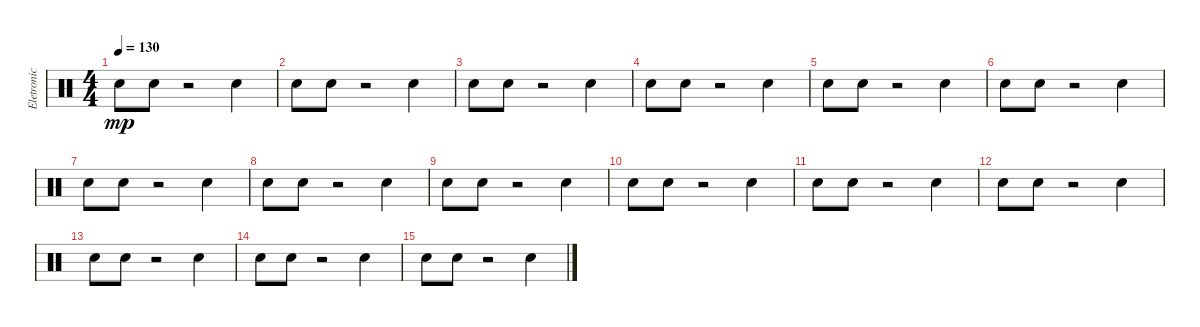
\track ("Eletronic drum" "Eletronic ") {instrument percussion}
\staff {score}
\articulation defaults
\ts (4 4)
\tempo 130
\clef neutral
\ks c "Snare (hit) 2".8{dy mp} "Hand Clap (hit)".8
r.2 "Hand Clap (hit)".4 |
"Snare (hit) 2".8 "Hand Clap (hit)".8 r.2 "Hand Clap (hit)".4 |
"Snare (hit) 2".8 "Hand Clap (hit)".8 r.2 "Hand Clap (hit)".4 |
"Snare (hit) 2".8 "Hand Clap (hit)".8 r.2 "Hand Clap (hit)".4 |
"Snare (hit) 2".8 "Hand Clap (hit)".8 r.2 "Hand Clap (hit)".4 |
"Snare (hit) 2".8 "Hand Clap (hit)".8 r.2 "Hand Clap (hit)".4 |
"Snare (hit) 2".8 "Hand Clap (hit)".8 r.2 "Hand Clap (hit)".4 |
"Snare (hit) 2".8 "Hand Clap (hit)".8 r.2 "Hand Clap (hit)".4 |
"Snare (hit) 2".8 "Hand Clap (hit)".8 r.2 "Hand Clap (hit)".4 |
"Snare (hit) 2".8 "Hand Clap (hit)".8 r.2 "Hand Clap (hit)".4 |
"Snare (hit) 2".8 "Hand Clap (hit)".8 r.2 "Hand Clap (hit)".4 |
"Snare (hit) 2".8 "Hand Clap (hit)".8 r.2 "Hand Clap (hit)".4 |
"Snare (hit) 2".8 "Hand Clap (hit)".8 r.2 "Hand Clap (hit)".4 |
"Snare (hit) 2".8 "Hand Clap (hit)".8 r.2 "Hand Clap (hit)".4 |
"Snare (hit) 2".8 "Hand Clap (hit)".8 r.2 "Hand Clap (hit)".4
